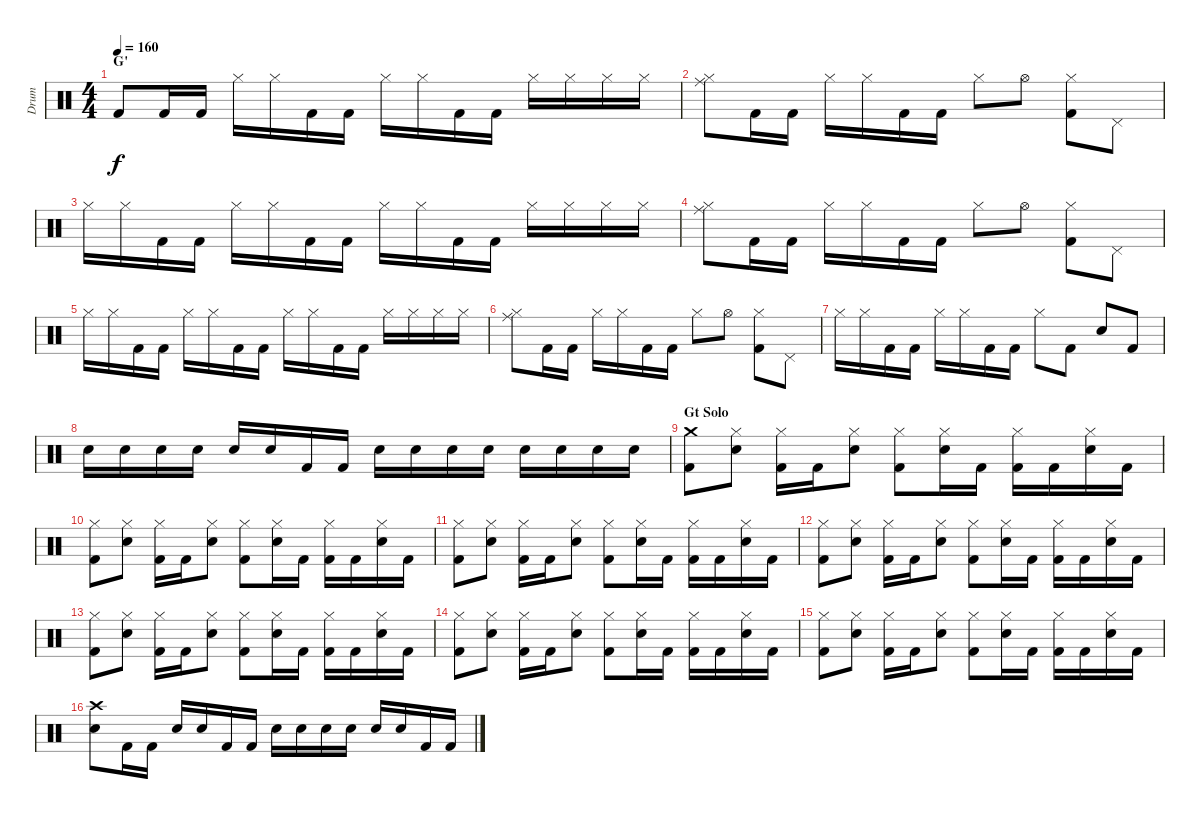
\track ("Drum" "Drum") {instrument percussion}
\staff {score}
\articulation defaults
\ts (4 4)
\section ("" "G'")
\tempo 160
\clef neutral
\ks c "Kick (hit) 2".8{dy f} "Kick (hit) 2".16 "Kick (hit) 2".16 "Hi-Hat (closed)".16 "Hi-Hat (closed)".16 "Kick (hit) 2".16 "Kick (hit) 2".16 "Hi-Hat (closed)".16 "Hi-Hat (closed)".16 "Kick (hit) 2".16 "Kick (hit) 2".16 "Hi-Hat (closed)".16 "Hi-Hat (closed)".16 "Hi-Hat (closed)".16 "Hi-Hat (closed)".16
|
("Ride (middle)" "Hi-Hat (closed)").8 "Kick (hit) 2".16 "Kick (hit) 2".16 "Hi-Hat (closed)".16 "Hi-Hat (closed)".16 "Kick (hit) 2".16 "Kick (hit) 2".16 "Hi-Hat (closed)".8 "Hi-Hat (open)".8 ("Hi-Hat (closed)" "Kick (hit) 2").8 "Pedal Hi-Hat (hit)".8 |
"Hi-Hat (closed)".16 "Hi-Hat (closed)".16 "Kick (hit) 2".16 "Kick (hit) 2".16 "Hi-Hat (closed)".16 "Hi-Hat (closed)".16 "Kick (hit) 2".16 "Kick (hit) 2".16 "Hi-Hat (closed)".16 "Hi-Hat (closed)".16 "Kick (hit) 2".16 "Kick (hit) 2".16 "Hi-Hat (closed)".16 "Hi-Hat (closed)".16 "Hi-Hat (closed)".16 "Hi-Hat (closed)".16 |
("Ride (middle)" "Hi-Hat (closed)").8 "Kick (hit) 2".16 "Kick (hit) 2".16 "Hi-Hat (closed)".16 "Hi-Hat (closed)".16 "Kick (hit) 2".16 "Kick (hit) 2".16 "Hi-Hat (closed)".8 "Hi-Hat (open)".8 ("Hi-Hat (closed)" "Kick (hit) 2").8 "Pedal Hi-Hat (hit)".8 |
"Hi-Hat (closed)".16 "Hi-Hat (closed)".16 "Kick (hit) 2".16 "Kick (hit) 2".16 "Hi-Hat (closed)".16 "Hi-Hat (closed)".16 "Kick (hit) 2".16 "Kick (hit) 2".16 "Hi-Hat (closed)".16 "Hi-Hat (closed)".16 "Kick (hit) 2".16 "Kick (hit) 2".16 "Hi-Hat (closed)".16 "Hi-Hat (closed)".16 "Hi-Hat (closed)".16 "Hi-Hat (closed)".16 |
("Ride (middle)" "Hi-Hat (closed)").8 "Kick (hit) 2".16 "Kick (hit) 2".16 "Hi-Hat (closed)".16 "Hi-Hat (closed)".16 "Kick (hit) 2".16 "Kick (hit) 2".16 "Hi-Hat (closed)".8 "Hi-Hat (open)".8 ("Hi-Hat (closed)" "Kick (hit) 2").8 "Pedal Hi-Hat (hit)".8 |
"Hi-Hat (closed)".16 "Hi-Hat (closed)".16 "Kick (hit) 2".16 "Kick (hit) 2".16 "Hi-Hat (closed)".16 "Hi-Hat (closed)".16 "Kick (hit) 2".16 "Kick (hit) 2".16 "Hi-Hat (closed)".8 "Kick (hit) 2".8 "Snare (hit) 2".8 "Kick (hit) 2".8 |
"Snare (hit) 2".16 "Snare (hit) 2".16 "Snare (hit) 2".16 "Snare (hit) 2".16 "Snare (hit) 2".16 "Snare (hit) 2".16 "Kick (hit) 2".16 "Kick (hit) 2".16 "Snare (hit) 2".16 "Snare (hit) 2".16 "Snare (hit) 2".16 "Snare (hit) 2".16 "Snare (hit) 2".16 "Snare (hit) 2".16 "Snare (hit) 2".16 "Snare (hit) 2".16 |
\section ("" "Gt Solo")
("Crash medium (hit)" "Kick (hit) 2").8 ("Hi-Hat (closed)" "Snare (hit) 2").8 ("Hi-Hat (closed)" "Kick (hit) 2").16 "Kick (hit) 2".16 ("Hi-Hat (closed)" "Snare (hit) 2").8 ("Hi-Hat (closed)" "Kick (hit) 2").8 ("Hi-Hat (closed)" "Snare (hit) 2").16 "Kick (hit) 2".16 ("Hi-Hat (closed)" "Kick (hit) 2").16 "Kick (hit) 2".16 ("Hi-Hat (closed)" "Snare (hit) 2").16 "Kick (hit) 2".16 |
("Hi-Hat (closed)" "Kick (hit) 2").8 ("Hi-Hat (closed)" "Snare (hit) 2").8 ("Hi-Hat (closed)" "Kick (hit) 2").16 "Kick (hit) 2".16 ("Hi-Hat (closed)" "Snare (hit) 2").8 ("Hi-Hat (closed)" "Kick (hit) 2").8 ("Hi-Hat (closed)" "Snare (hit) 2").16 "Kick (hit) 2".16 ("Hi-Hat (closed)" "Kick (hit) 2").16 "Kick (hit) 2".16 ("Hi-Hat (closed)" "Snare (hit) 2").16 "Kick (hit) 2".16 |
("Hi-Hat (closed)" "Kick (hit) 2").8 ("Hi-Hat (closed)" "Snare (hit) 2").8 ("Hi-Hat (closed)" "Kick (hit) 2").16 "Kick (hit) 2".16 ("Hi-Hat (closed)" "Snare (hit) 2").8 ("Hi-Hat (closed)" "Kick (hit) 2").8 ("Hi-Hat (closed)" "Snare (hit) 2").16 "Kick (hit) 2".16 ("Hi-Hat (closed)" "Kick (hit) 2").16 "Kick (hit) 2".16 ("Hi-Hat (closed)" "Snare (hit) 2").16 "Kick (hit) 2".16 |
("Hi-Hat (closed)" "Kick (hit) 2").8 ("Hi-Hat (closed)" "Snare (hit) 2").8 ("Hi-Hat (closed)" "Kick (hit) 2").16 "Kick (hit) 2".16 ("Hi-Hat (closed)" "Snare (hit) 2").8 ("Hi-Hat (closed)" "Kick (hit) 2").8 ("Hi-Hat (closed)" "Snare (hit) 2").16 "Kick (hit) 2".16 ("Hi-Hat (closed)" "Kick (hit) 2").16 "Kick (hit) 2".16 ("Hi-Hat (closed)" "Snare (hit) 2").16 "Kick (hit) 2".16 |
("Hi-Hat (closed)" "Kick (hit) 2").8 ("Hi-Hat (closed)" "Snare (hit) 2").8 ("Hi-Hat (closed)" "Kick (hit) 2").16 "Kick (hit) 2".16 ("Hi-Hat (closed)" "Snare (hit) 2").8 ("Hi-Hat (closed)" "Kick (hit) 2").8 ("Hi-Hat (closed)" "Snare (hit) 2").16 "Kick (hit) 2".16 ("Hi-Hat (closed)" "Kick (hit) 2").16 "Kick (hit) 2".16 ("Hi-Hat (closed)" "Snare (hit) 2").16 "Kick (hit) 2".16 |
("Hi-Hat (closed)" "Kick (hit) 2").8 ("Hi-Hat (closed)" "Snare (hit) 2").8 ("Hi-Hat (closed)" "Kick (hit) 2").16 "Kick (hit) 2".16 ("Hi-Hat (closed)" "Snare (hit) 2").8 ("Hi-Hat (closed)" "Kick (hit) 2").8 ("Hi-Hat (closed)" "Snare (hit) 2").16 "Kick (hit) 2".16 ("Hi-Hat (closed)" "Kick (hit) 2").16 "Kick (hit) 2".16 ("Hi-Hat (closed)" "Snare (hit) 2").16 "Kick (hit) 2".16 |
("Hi-Hat (closed)" "Kick (hit) 2").8 ("Hi-Hat (closed)" "Snare (hit) 2").8 ("Hi-Hat (closed)" "Kick (hit) 2").16 "Kick (hit) 2".16 ("Hi-Hat (closed)" "Snare (hit) 2").8 ("Hi-Hat (closed)" "Kick (hit) 2").8 ("Hi-Hat (closed)" "Snare (hit) 2").16 "Kick (hit) 2".16 ("Hi-Hat (closed)" "Kick (hit) 2").16 "Kick (hit) 2".16 ("Hi-Hat (closed)" "Snare (hit) 2").16 "Kick (hit) 2".16 |
("Crash high (hit)" "Snare (hit) 2").8 "Kick (hit) 2".16 "Kick (hit) 2".16 "Snare (hit) 2".16 "Snare (hit) 2".16 "Kick (hit) 2".16 "Kick (hit) 2".16 "Snare (hit) 2".16 "Snare (hit) 2".16 "Snare (hit) 2".16 "Snare (hit) 2".16 "Snare (hit) 2".16 "Snare (hit) 2".16 "Kick (hit) 2".16 "Kick (hit) 2".16
